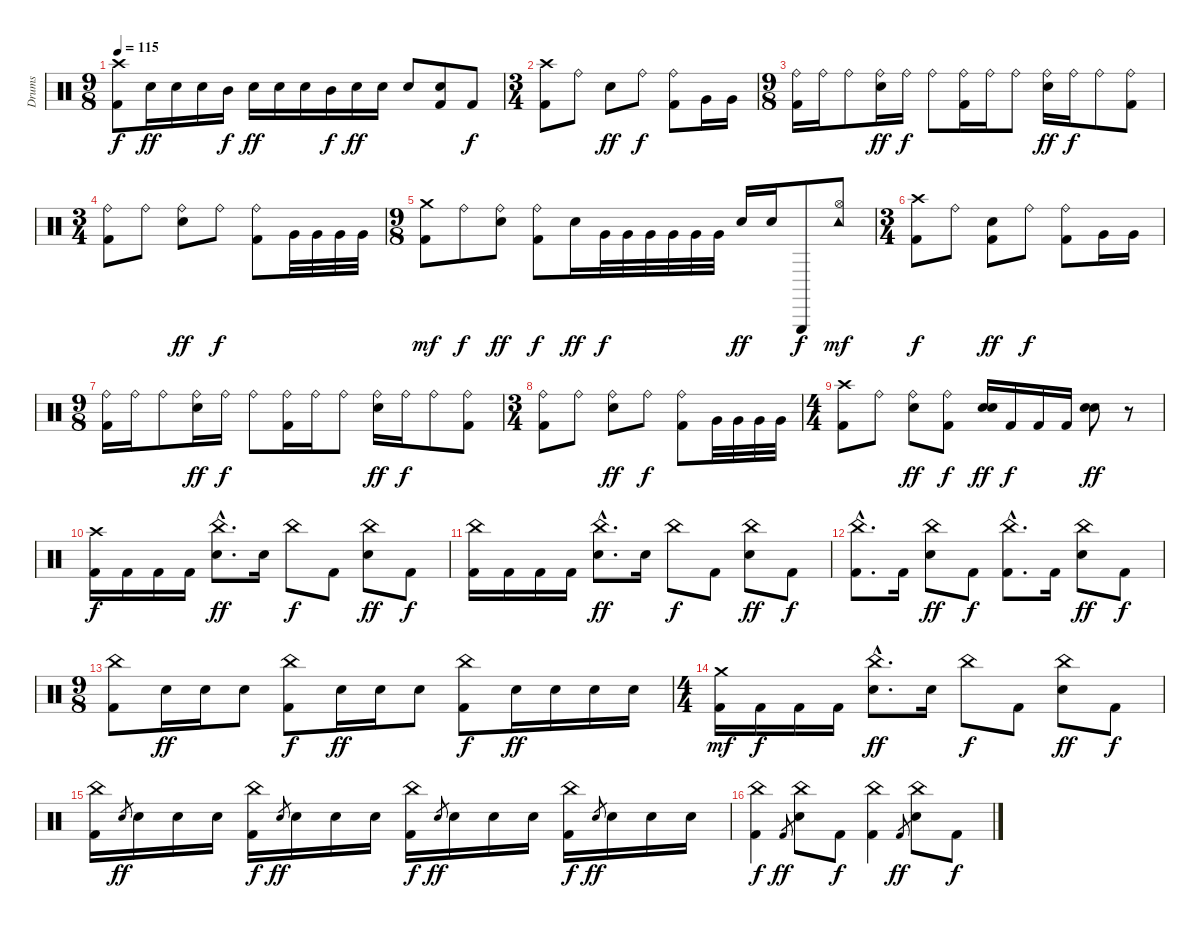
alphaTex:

\track ("Drums" "Drums") {instrument percussion}
\staff {score}
\articulation defaults
\ts (9 8)
\tempo 115
\clef neutral
\ks c
("Kick (hit) 2" "Crash high (hit)").8{dy f} "Electric Snare (hit)".16{dy ff} "Electric Snare (hit)".16 "Electric Snare (hit)".16 "Mid Tom (hit)".16{dy f} "Electric Snare (hit)".16{dy ff} "Electric Snare (hit)".16 "Electric Snare (hit)".16 "Mid Tom (hit)".16{dy f} "Electric Snare (hit)".16{dy ff} "Electric Snare (hit)".16 "Electric Snare (hit)".8 ("Kick (hit) 2" "Electric Snare (hit)").8 "Kick (hit) 2".8{dy f} |
\ts (3 4)
("Kick (hit) 2" "Crash high (hit)").8 "Ride (bell)".8 "Electric Snare (hit)".8{dy ff} "Ride (bell)".8{dy f} ("Kick (hit) 2" "Ride (bell)").8 "Very Low Tom (hit)".16 "Very Low Tom (hit)".16 |
\ts (9 8)
("Kick (hit) 2" "Ride (bell)").16 "Ride (bell)".16 "Ride (bell)".8 ("Electric Snare (hit)" "Ride (bell)").16{dy ff} "Ride (bell)".16{dy f} "Ride (bell)".8 ("Kick (hit) 2" "Ride (bell)").16 "Ride (bell)".16 "Ride (bell)".8 ("Electric Snare (hit)" "Ride (bell)").16{dy ff} "Ride (bell)".16{dy f} "Ride (bell)".8 ("Kick (hit) 2" "Ride (bell)").8 |
\ts (3 4)
("Kick (hit) 2" "Ride (bell)").8 "Ride (bell)".8 ("Electric Snare (hit)" "Ride (bell)").8{dy ff} "Ride (bell)".8{dy f} ("Kick (hit) 2" "Ride (bell)").8 "Very Low Tom (hit)".32 "Very Low Tom (hit)".32 "Very Low Tom (hit)".32 "Very Low Tom (hit)".32 |
\ts (9 8)
("Kick (hit) 2" "Crash medium (hit)").8{dy mf} "Ride (bell)".8{dy f} ("Electric Snare (hit)" "Ride (bell)").8{dy ff} ("Kick (hit) 2" "Ride (bell)").8{dy f} "Electric Snare (hit)".16{dy ff} "Very Low Tom (hit)".32{dy f} "Very Low Tom (hit)".32 "Very Low Tom (hit)".32 "Very Low Tom (hit)".32 "Very Low Tom (hit)".32 "Very Low Tom (hit)".32 "Electric Snare (hit)".16{dy ff} "Electric Snare (hit)".16 "Triangle (hit)".8{dy f} ("Hi-Hat (open)" "Tambourine (hit)").8{dy mf} |
\ts (3 4)
("Kick (hit) 2" "Crash high (hit)").8{dy f} "Ride (bell)".8 ("Kick (hit) 2" "Electric Snare (hit)").8{dy ff} "Ride (bell)".8{dy f} ("Kick (hit) 2" "Ride (bell)").8 "Very Low Tom (hit)".16 "Very Low Tom (hit)".16 |
\ts (9 8)
("Kick (hit) 2" "Ride (bell)").16 "Ride (bell)".16 "Ride (bell)".8 ("Electric Snare (hit)" "Ride (bell)").16{dy ff} "Ride (bell)".16{dy f} "Ride (bell)".8 ("Kick (hit) 2" "Ride (bell)").16 "Ride (bell)".16 "Ride (bell)".8 ("Electric Snare (hit)" "Ride (bell)").16{dy ff} "Ride (bell)".16{dy f} "Ride (bell)".8 ("Kick (hit) 2" "Ride (bell)").8 |
\ts (3 4)
("Kick (hit) 2" "Ride (bell)").8 "Ride (bell)".8 ("Electric Snare (hit)" "Ride (bell)").8{dy ff} "Ride (bell)".8{dy f} ("Kick (hit) 2" "Ride (bell)").8 "Very Low Tom (hit)".32 "Very Low Tom (hit)".32 "Very Low Tom (hit)".32 "Very Low Tom (hit)".32 |
\ts (4 4)
("Kick (hit) 2" "Crash high (hit)").8 "Ride (bell)".8 ("Electric Snare (hit)" "Ride (bell)").8{dy ff} ("Kick (hit) 2" "Ride (bell)").8{dy f} ("Electric Snare (hit)" "Electric Snare (hit)").16{dy ff} "Kick (hit) 2".16{dy f} "Kick (hit) 2".16 "Kick (hit) 2".16 ("Electric Snare (hit)" "Electric Snare (hit)").8{dy ff} r.8 |
("Kick (hit) 2" "Crash high (hit)").16{dy f} "Kick (hit) 2".16 "Kick (hit) 2".16 "Kick (hit) 2".16 ("Electric Snare (hit)"{hac} "China (hit)"{hac}).8{d dy ff} "Electric Snare (hit)".16 "China (hit)".8{dy f} "Kick (hit) 2".8 ("Electric Snare (hit)" "China (hit)").8{dy ff} "Kick (hit) 2".8{dy f} |
("Kick (hit) 2" "China (hit)").16 "Kick (hit) 2".16 "Kick (hit) 2".16 "Kick (hit) 2".16 ("Electric Snare (hit)"{hac} "China (hit)"{hac}).8{d dy ff} "Electric Snare (hit)".16 "China (hit)".8{dy f} "Kick (hit) 2".8 ("Electric Snare (hit)" "China (hit)").8{dy ff} "Kick (hit) 2".8{dy f} |
("Kick (hit) 2"{hac} "China (hit)"{hac}).8{d} "Kick (hit) 2".16 ("Electric Snare (hit)" "China (hit)").8{dy ff} "Kick (hit) 2".8{dy f} ("Kick (hit) 2"{hac} "China (hit)"{hac}).8{d} "Kick (hit) 2".16 ("Electric Snare (hit)" "China (hit)").8{dy ff} "Kick (hit) 2".8{dy f} |
\ts (9 8)
("Kick (hit) 2" "China (hit)").8 "Electric Snare (hit)".16{dy ff} "Electric Snare (hit)".16 "Electric Snare (hit)".8 ("Kick (hit) 2" "China (hit)").8{dy f} "Electric Snare (hit)".16{dy ff} "Electric Snare (hit)".16 "Electric Snare (hit)".8 ("Kick (hit) 2" "China (hit)").8{dy f} "Electric Snare (hit)".16{dy ff} "Electric Snare (hit)".16 "Electric Snare (hit)".16 "Electric Snare (hit)".16 |
\ts (4 4)
("Kick (hit) 2" "Crash medium (hit)").16{dy mf} "Kick (hit) 2".16{dy f} "Kick (hit) 2".16 "Kick (hit) 2".16 ("Electric Snare (hit)"{hac} "China (hit)"{hac}).8{d dy ff} "Electric Snare (hit)".16 "China (hit)".8{dy f} "Kick (hit) 2".8 ("Electric Snare (hit)" "China (hit)").8{dy ff} "Kick (hit) 2".8{dy f} |
("Kick (hit) 2" "China (hit)").16 "Electric Snare (hit)".8{gr dy ff} "Electric Snare (hit)".16 "Electric Snare (hit)".16 "Electric Snare (hit)".16 ("Kick (hit) 2" "China (hit)").16{dy f} "Electric Snare (hit)".8{gr dy ff} "Electric Snare (hit)".16 "Electric Snare (hit)".16 "Electric Snare (hit)".16 ("Kick (hit) 2" "China (hit)").16{dy f} "Electric Snare (hit)".8{gr dy ff} "Electric Snare (hit)".16 "Electric Snare (hit)".16 "Electric Snare (hit)".16 ("Kick (hit) 2" "China (hit)").16{dy f} "Electric Snare (hit)".8{gr dy ff} "Electric Snare (hit)".16 "Electric Snare (hit)".16 "Electric Snare (hit)".16 |
("Kick (hit) 2" "China (hit)").4{dy f} "Kick (hit) 2".8{gr dy ff} ("Electric Snare (hit)" "China (hit)").8 "Kick (hit) 2".8{dy f} ("Kick (hit) 2" "China (hit)").4 "Kick (hit) 2".8{gr dy ff} ("Electric Snare (hit)" "China (hit)").8 "Kick (hit) 2".8{dy f}
